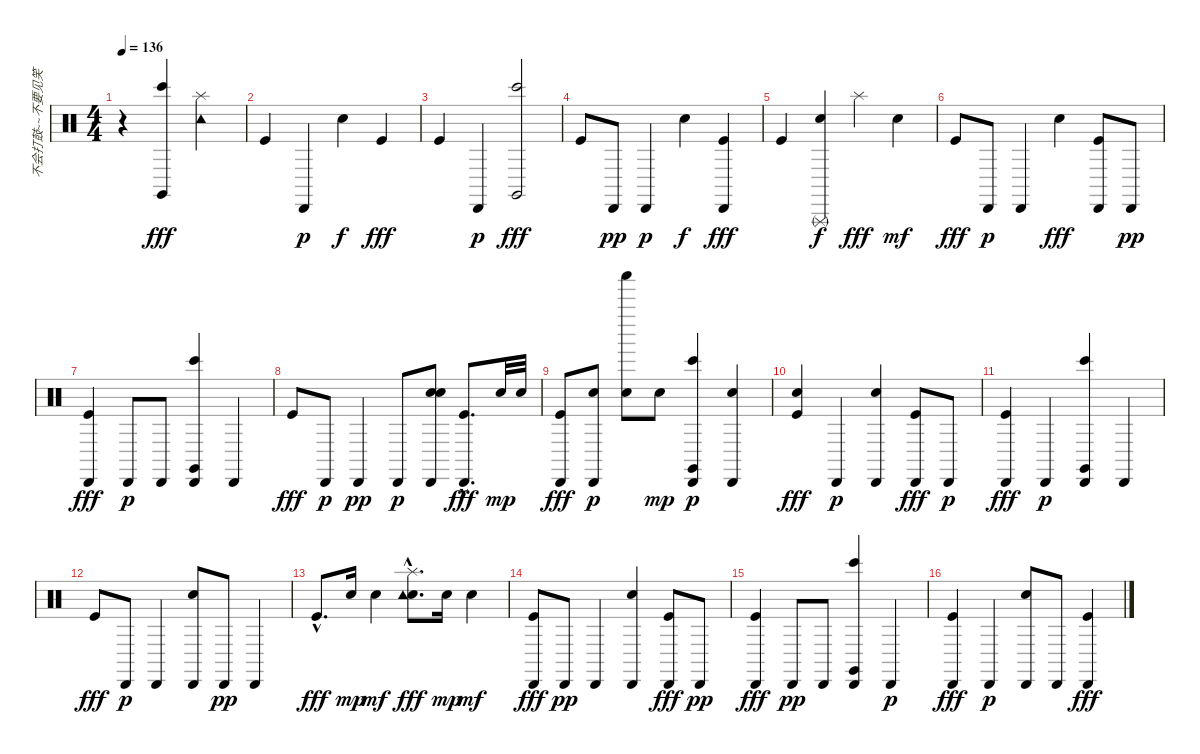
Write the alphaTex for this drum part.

\track ("不会打鼓~~不要见笑" "不会打鼓~~不要见笑") {instrument percussion}
\staff {score}
\articulation defaults
\ts (4 4)
\tempo 136
\clef neutral
\ks c
r.4{dy fff} ("Bongo High (hit)" "Claves (hit)").4 ("Tambourine (hit)" "Splash (hit)").2 |
"Kick (hit)".4 "Cabasa (hit)".4{dy p} "Snare (hit) 2".4{dy f} "Kick (hit)".4{dy fff} |
"Kick (hit)".4 "Cabasa (hit)".4{dy p} ("Bongo High (hit)" "Claves (hit)").2{dy fff} |
"Kick (hit)".8 "Cabasa (hit)".8{dy pp} "Cabasa (hit)".4{dy p} "Snare (hit) 2".4{dy f} ("Cabasa (hit)" "Kick (hit)").4{dy fff} |
"Kick (hit)".4 ("Metronome (bell)" "Triangle (rnute)").4{dy f} "Splash (hit)".4{dy fff} "Metronome (bell)".4{dy mf} |
"Kick (hit)".8{dy fff} "Cabasa (hit)".8{dy p} "Cabasa (hit)".4 "Snare (hit) 2".4{dy fff} ("Cabasa (hit)" "Kick (hit)").8 "Cabasa (hit)".8{dy pp} |
("Cabasa (hit)" "Kick (hit)").4{dy fff} "Cabasa (hit)".8{dy p} "Cabasa (hit)".8 ("Bongo High (hit)" "Claves (hit)" "Cabasa (hit)").4 "Cabasa (hit)".4 |
"Kick (hit)".8{dy fff} "Cabasa (hit)".8{dy p} "Cabasa (hit)".4{dy pp} "Cabasa (hit)".8{dy p} ("Metronome (bell)" "Snare (hit) 2" "Cabasa (hit)").8 ("Cabasa (hit)"{hac} "Kick (hit)"{hac}).8{d dy fff} "Metronome (bell)".32{dy mp} "Metronome (bell)".32 |
("Cabasa (hit)" "Kick (hit)").8{dy fff} ("Metronome (bell)" "Cabasa (hit)").8{dy p} ("Metronome (bell)" "Shaker (hit)").8 "Metronome (bell)".8{dy mp} ("Bongo High (hit)" "Claves (hit)" "Cabasa (hit)").4{dy p} ("Metronome (bell)" "Cabasa (hit)").4 |
("Metronome (bell)" "Kick (hit)").4{dy fff} "Cabasa (hit)".4{dy p} ("Snare (hit) 2" "Cabasa (hit)").4 ("Cabasa (hit)" "Kick (hit)").8{dy fff} "Cabasa (hit)".8{dy p} |
("Cabasa (hit)" "Kick (hit)").4{dy fff} "Cabasa (hit)".4{dy p} ("Bongo High (hit)" "Claves (hit)" "Cabasa (hit)").4 "Cabasa (hit)".4 |
"Kick (hit)".8{dy fff} "Cabasa (hit)".8{dy p} "Cabasa (hit)".4 ("Snare (hit) 2" "Cabasa (hit)").8 "Cabasa (hit)".8{dy pp} "Cabasa (hit)".4 |
"Kick (hit)"{hac}.8{d dy fff} "Metronome (bell)".16{dy mp} "Metronome (bell)".4{dy mf} ("Metronome (bell)"{hac} "Tambourine (hit)"{hac} "Splash (hit)"{hac}).8{d dy fff} "Metronome (bell)".16{dy mp} "Metronome (bell)".4{dy mf} |
("Cabasa (hit)" "Kick (hit)").8{dy fff} "Cabasa (hit)".8{dy pp} "Cabasa (hit)".4 ("Snare (hit) 2" "Cabasa (hit)").4 ("Cabasa (hit)" "Kick (hit)").8{dy fff} "Cabasa (hit)".8{dy pp} |
("Cabasa (hit)" "Kick (hit)").4{dy fff} "Cabasa (hit)".8{dy pp} "Cabasa (hit)".8 ("Bongo High (hit)" "Claves (hit)" "Cabasa (hit)").4 "Cabasa (hit)".4{dy p} |
("Cabasa (hit)" "Kick (hit)").4{dy fff} "Cabasa (hit)".4{dy p} ("Snare (hit) 2" "Cabasa (hit)").8 "Cabasa (hit)".8 ("Cabasa (hit)" "Kick (hit)").4{dy fff}
